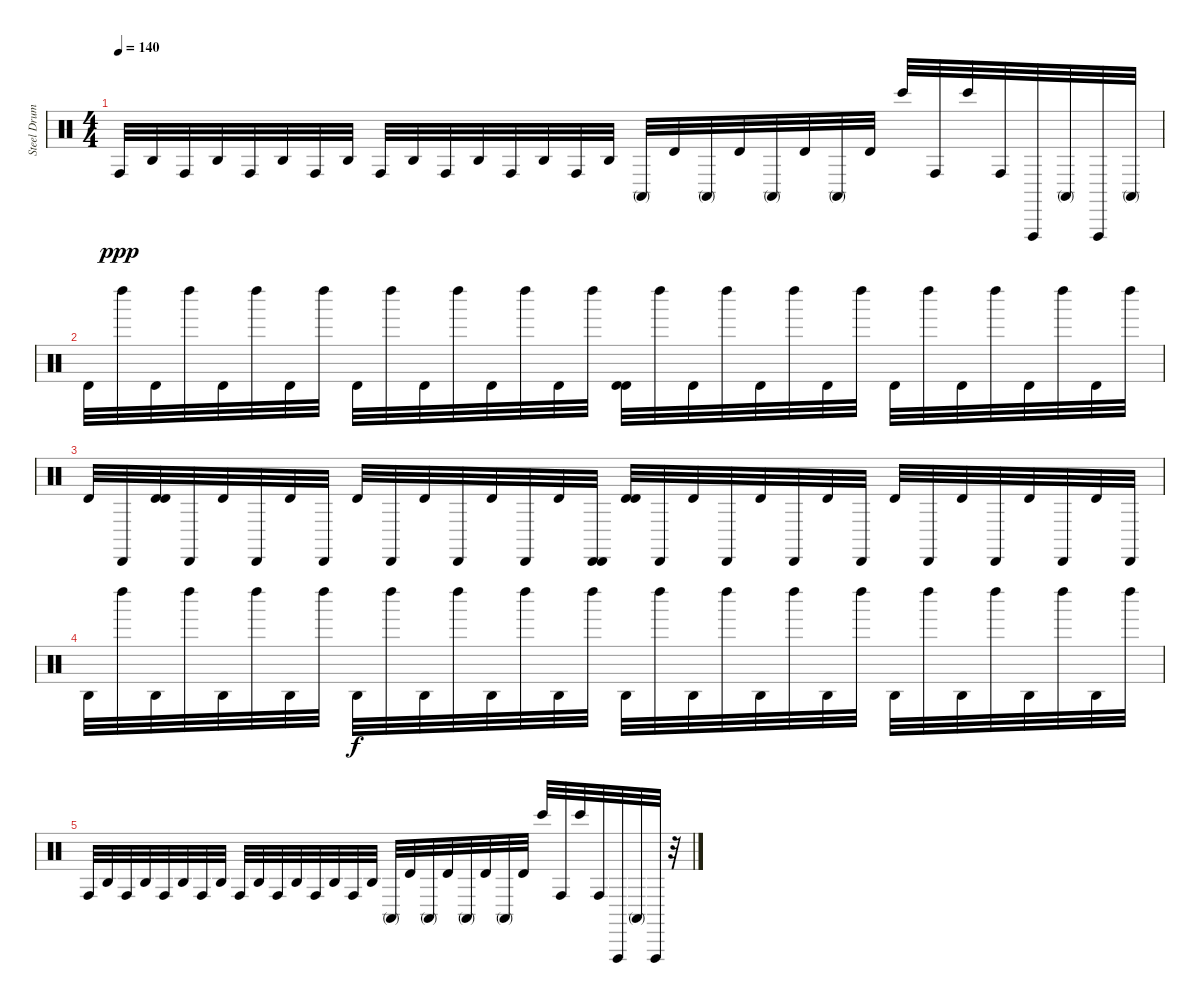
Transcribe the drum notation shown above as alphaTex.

\track ("Steel Drums" "Steel Drum") {instrument percussion}
\staff {score}
\articulation defaults
\ts (4 4)
\tempo 140
\clef neutral
\ks c "Conga high (hit)".32{dy ppp} "Agogo high (hit)".32 "Conga high (hit)".32 "Agogo high (hit)".32 "Conga high (hit)".32 "Agogo high (hit)".32 "Conga high (hit)".32 "Agogo high (hit)".32 "Conga high (hit)".32 "Agogo high (hit)".32 "Conga high (hit)".32 "Agogo high (hit)".32 "Conga high (hit)".32 "Agogo high (hit)".32 "Conga high (hit)".32 "Agogo high (hit)".32 "Conga high (mute)".32 "Timbale high (hit)".32 "Conga high (mute)".32 "Timbale high (hit)".32 "Conga high (mute)".32 "Timbale high (hit)".32 "Conga high (mute)".32 "Timbale high (hit)".32 "Bongo High (hit)".32 "Conga high (hit)".32 "Bongo High (hit)".32 "Conga high (hit)".32 "Vibraslap (hit)".32 "Conga high (mute)".32 "Vibraslap (hit)".32 "Conga high (mute)".32
|
"Timbale high (hit)".32 "Left Maraca (hit)".32 "Timbale high (hit)".32 "Left Maraca (hit)".32 "Timbale high (hit)".32 "Left Maraca (hit)".32 "Timbale high (hit)".32 "Left Maraca (hit)".32 "Timbale high (hit)".32 "Left Maraca (hit)".32 "Timbale high (hit)".32 "Left Maraca (hit)".32 "Timbale high (hit)".32 "Left Maraca (hit)".32 "Timbale high (hit)".32 "Left Maraca (hit)".32 ("Timbale high (hit)" "Timbale high (hit)").32 "Left Maraca (hit)".32 "Timbale high (hit)".32 "Left Maraca (hit)".32 "Timbale high (hit)".32 "Left Maraca (hit)".32 "Timbale high (hit)".32 "Left Maraca (hit)".32 "Timbale high (hit)".32 "Left Maraca (hit)".32 "Timbale high (hit)".32 "Left Maraca (hit)".32 "Timbale high (hit)".32 "Left Maraca (hit)".32 "Timbale high (hit)".32 "Left Maraca (hit)".32 |
"Timbale high (hit)".32 "Cabasa (hit)".32 ("Timbale high (hit)" "Timbale high (hit)").32 "Cabasa (hit)".32 "Timbale high (hit)".32 "Cabasa (hit)".32 "Timbale high (hit)".32 "Cabasa (hit)".32 "Timbale high (hit)".32 "Cabasa (hit)".32 "Timbale high (hit)".32 "Cabasa (hit)".32 "Timbale high (hit)".32 "Cabasa (hit)".32 "Timbale high (hit)".32 ("Cabasa (hit)" "Cabasa (hit)").32 ("Timbale high (hit)" "Timbale high (hit)").32 "Cabasa (hit)".32 "Timbale high (hit)".32 "Cabasa (hit)".32 "Timbale high (hit)".32 "Cabasa (hit)".32 "Timbale high (hit)".32 "Cabasa (hit)".32 "Timbale high (hit)".32 "Cabasa (hit)".32 "Timbale high (hit)".32 "Cabasa (hit)".32 "Timbale high (hit)".32 "Cabasa (hit)".32 "Timbale high (hit)".32 "Cabasa (hit)".32 |
"Agogo high (hit)".32 "Left Maraca (hit)".32 "Agogo high (hit)".32 "Left Maraca (hit)".32 "Agogo high (hit)".32 "Left Maraca (hit)".32 "Agogo high (hit)".32 "Left Maraca (hit)".32 "Agogo high (hit)".32{dy f} "Left Maraca (hit)".32 "Agogo high (hit)".32 "Left Maraca (hit)".32 "Agogo high (hit)".32 "Left Maraca (hit)".32 "Agogo high (hit)".32 "Left Maraca (hit)".32 "Agogo high (hit)".32 "Left Maraca (hit)".32 "Agogo high (hit)".32 "Left Maraca (hit)".32 "Agogo high (hit)".32 "Left Maraca (hit)".32 "Agogo high (hit)".32 "Left Maraca (hit)".32 "Agogo high (hit)".32 "Left Maraca (hit)".32 "Agogo high (hit)".32 "Left Maraca (hit)".32 "Agogo high (hit)".32 "Left Maraca (hit)".32 "Agogo high (hit)".32 "Left Maraca (hit)".32 |
"Conga high (hit)".32 "Agogo high (hit)".32 "Conga high (hit)".32 "Agogo high (hit)".32 "Conga high (hit)".32 "Agogo high (hit)".32 "Conga high (hit)".32 "Agogo high (hit)".32 "Conga high (hit)".32 "Agogo high (hit)".32 "Conga high (hit)".32 "Agogo high (hit)".32 "Conga high (hit)".32 "Agogo high (hit)".32 "Conga high (hit)".32 "Agogo high (hit)".32 "Conga high (mute)".32 "Timbale high (hit)".32 "Conga high (mute)".32 "Timbale high (hit)".32 "Conga high (mute)".32 "Timbale high (hit)".32 "Conga high (mute)".32 "Timbale high (hit)".32 "Bongo High (hit)".32 "Conga high (hit)".32 "Bongo High (hit)".32 "Conga high (hit)".32 "Vibraslap (hit)".32 "Conga high (mute)".32 "Vibraslap (hit)".32 r.32
